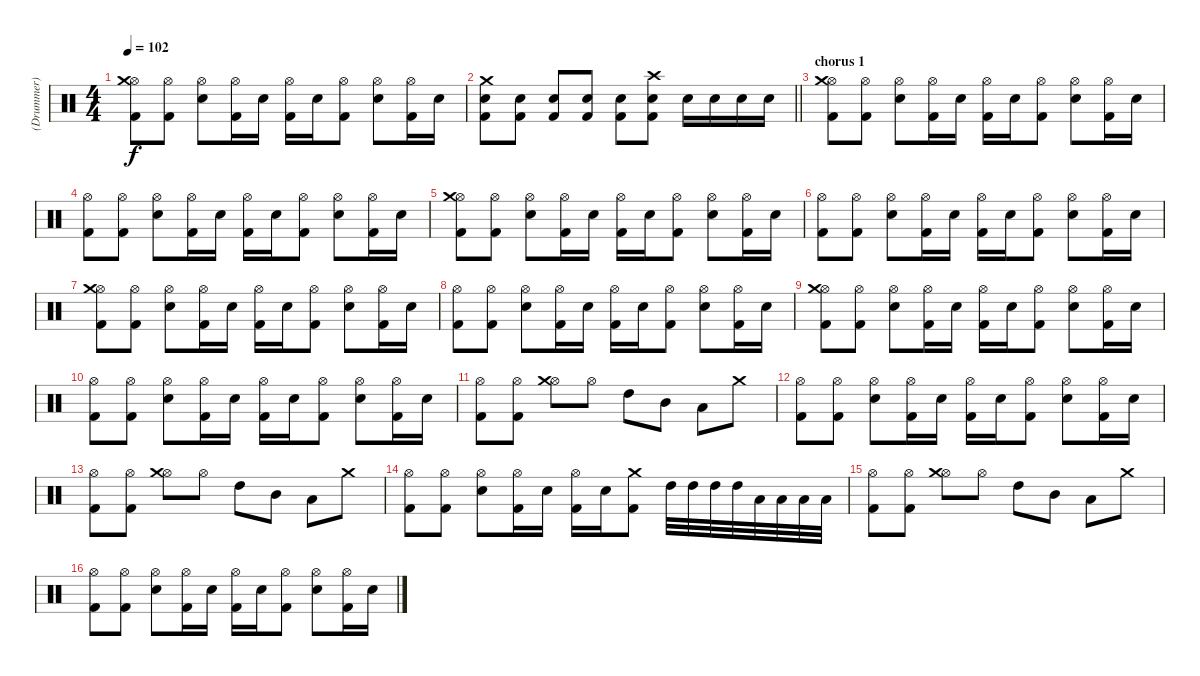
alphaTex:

\track ("(Drummer)" "(Drummer)") {solo instrument percussion}
\staff {score}
\articulation defaults
\ts (4 4)
\tempo 102
\clef neutral
\ks c
("Hi-Hat (open)" "Crash medium (hit)" "Kick (hit) 2").8{dy f} ("Hi-Hat (open)" "Kick (hit) 2").8 ("Hi-Hat (open)" "Electric Snare (hit)").8 ("Hi-Hat (open)" "Kick (hit) 2").16 "Electric Snare (hit)".16 ("Hi-Hat (open)" "Kick (hit) 2").16 "Electric Snare (hit)".16 ("Hi-Hat (open)" "Kick (hit) 2").8 ("Hi-Hat (open)" "Electric Snare (hit)").8 ("Hi-Hat (open)" "Kick (hit) 2").16 "Electric Snare (hit)".16 |
\barLineRight lightlight
("Crash medium (hit)" "Electric Snare (hit)" "Kick (hit) 2").8 ("Electric Snare (hit)" "Kick (hit) 2").8 ("Electric Snare (hit)" "Kick (hit) 2").8 ("Electric Snare (hit)" "Kick (hit) 2").8 ("Electric Snare (hit)" "Kick (hit) 2").8 ("Crash high (hit)" "Electric Snare (hit)" "Kick (hit) 2").8 "Electric Snare (hit)".16 "Electric Snare (hit)".16 "Electric Snare (hit)".16 "Electric Snare (hit)".16 |
\section ("" "chorus 1")
("Hi-Hat (open)" "Crash medium (hit)" "Kick (hit) 2").8 ("Hi-Hat (open)" "Kick (hit) 2").8 ("Hi-Hat (open)" "Electric Snare (hit)").8 ("Hi-Hat (open)" "Kick (hit) 2").16 "Electric Snare (hit)".16 ("Hi-Hat (open)" "Kick (hit) 2").16 "Electric Snare (hit)".16 ("Hi-Hat (open)" "Kick (hit) 2").8 ("Hi-Hat (open)" "Electric Snare (hit)").8 ("Hi-Hat (open)" "Kick (hit) 2").16 "Electric Snare (hit)".16 |
("Hi-Hat (open)" "Kick (hit) 2").8 ("Hi-Hat (open)" "Kick (hit) 2").8 ("Hi-Hat (open)" "Electric Snare (hit)").8 ("Hi-Hat (open)" "Kick (hit) 2").16 "Electric Snare (hit)".16 ("Hi-Hat (open)" "Kick (hit) 2").16 "Electric Snare (hit)".16 ("Hi-Hat (open)" "Kick (hit) 2").8 ("Hi-Hat (open)" "Electric Snare (hit)").8 ("Hi-Hat (open)" "Kick (hit) 2").16 "Electric Snare (hit)".16 |
("Hi-Hat (open)" "Crash medium (hit)" "Kick (hit) 2").8 ("Hi-Hat (open)" "Kick (hit) 2").8 ("Hi-Hat (open)" "Electric Snare (hit)").8 ("Hi-Hat (open)" "Kick (hit) 2").16 "Electric Snare (hit)".16 ("Hi-Hat (open)" "Kick (hit) 2").16 "Electric Snare (hit)".16 ("Hi-Hat (open)" "Kick (hit) 2").8 ("Hi-Hat (open)" "Electric Snare (hit)").8 ("Hi-Hat (open)" "Kick (hit) 2").16 "Electric Snare (hit)".16 |
("Hi-Hat (open)" "Kick (hit) 2").8 ("Hi-Hat (open)" "Kick (hit) 2").8 ("Hi-Hat (open)" "Electric Snare (hit)").8 ("Hi-Hat (open)" "Kick (hit) 2").16 "Electric Snare (hit)".16 ("Hi-Hat (open)" "Kick (hit) 2").16 "Electric Snare (hit)".16 ("Hi-Hat (open)" "Kick (hit) 2").8 ("Hi-Hat (open)" "Electric Snare (hit)").8 ("Hi-Hat (open)" "Kick (hit) 2").16 "Electric Snare (hit)".16 |
("Hi-Hat (open)" "Crash medium (hit)" "Kick (hit) 2").8 ("Hi-Hat (open)" "Kick (hit) 2").8 ("Hi-Hat (open)" "Electric Snare (hit)").8 ("Hi-Hat (open)" "Kick (hit) 2").16 "Electric Snare (hit)".16 ("Hi-Hat (open)" "Kick (hit) 2").16 "Electric Snare (hit)".16 ("Hi-Hat (open)" "Kick (hit) 2").8 ("Hi-Hat (open)" "Electric Snare (hit)").8 ("Hi-Hat (open)" "Kick (hit) 2").16 "Electric Snare (hit)".16 |
("Hi-Hat (open)" "Kick (hit) 2").8 ("Hi-Hat (open)" "Kick (hit) 2").8 ("Hi-Hat (open)" "Electric Snare (hit)").8 ("Hi-Hat (open)" "Kick (hit) 2").16 "Electric Snare (hit)".16 ("Hi-Hat (open)" "Kick (hit) 2").16 "Electric Snare (hit)".16 ("Hi-Hat (open)" "Kick (hit) 2").8 ("Hi-Hat (open)" "Electric Snare (hit)").8 ("Hi-Hat (open)" "Kick (hit) 2").16 "Electric Snare (hit)".16 |
("Hi-Hat (open)" "Crash medium (hit)" "Kick (hit) 2").8 ("Hi-Hat (open)" "Kick (hit) 2").8 ("Hi-Hat (open)" "Electric Snare (hit)").8 ("Hi-Hat (open)" "Kick (hit) 2").16 "Electric Snare (hit)".16 ("Hi-Hat (open)" "Kick (hit) 2").16 "Electric Snare (hit)".16 ("Hi-Hat (open)" "Kick (hit) 2").8 ("Hi-Hat (open)" "Electric Snare (hit)").8 ("Hi-Hat (open)" "Kick (hit) 2").16 "Electric Snare (hit)".16 |
("Hi-Hat (open)" "Kick (hit) 2").8 ("Hi-Hat (open)" "Kick (hit) 2").8 ("Hi-Hat (open)" "Electric Snare (hit)").8 ("Hi-Hat (open)" "Kick (hit) 2").16 "Electric Snare (hit)".16 ("Hi-Hat (open)" "Kick (hit) 2").16 "Electric Snare (hit)".16 ("Hi-Hat (open)" "Kick (hit) 2").8 ("Hi-Hat (open)" "Electric Snare (hit)").8 ("Hi-Hat (open)" "Kick (hit) 2").16 "Electric Snare (hit)".16 |
("Hi-Hat (open)" "Kick (hit) 2").8 ("Hi-Hat (open)" "Kick (hit) 2").8 ("Hi-Hat (open)" "Crash medium (hit)").8 "Hi-Hat (open)".8 "High Tom (hit)".8 "Mid Tom (hit)".8 "Low Tom (hit)".8 "Crash medium (hit)".8 |
("Hi-Hat (open)" "Kick (hit) 2").8 ("Hi-Hat (open)" "Kick (hit) 2").8 ("Hi-Hat (open)" "Electric Snare (hit)").8 ("Hi-Hat (open)" "Kick (hit) 2").16 "Electric Snare (hit)".16 ("Hi-Hat (open)" "Kick (hit) 2").16 "Electric Snare (hit)".16 ("Hi-Hat (open)" "Kick (hit) 2").8 ("Hi-Hat (open)" "Electric Snare (hit)").8 ("Hi-Hat (open)" "Kick (hit) 2").16 "Electric Snare (hit)".16 |
("Hi-Hat (open)" "Kick (hit) 2").8 ("Hi-Hat (open)" "Kick (hit) 2").8 ("Hi-Hat (open)" "Crash medium (hit)").8 "Hi-Hat (open)".8 "High Tom (hit)".8 "Mid Tom (hit)".8 "Low Tom (hit)".8 "Crash medium (hit)".8 |
("Hi-Hat (open)" "Kick (hit) 2").8 ("Hi-Hat (open)" "Kick (hit) 2").8 ("Hi-Hat (open)" "Electric Snare (hit)").8 ("Hi-Hat (open)" "Kick (hit) 2").16 "Electric Snare (hit)".16 ("Hi-Hat (open)" "Kick (hit) 2").16 "Electric Snare (hit)".16 ("Crash medium (hit)" "Kick (hit) 2").8 "High Tom (hit)".32 "High Tom (hit)".32 "High Tom (hit)".32 "High Tom (hit)".32 "Low Tom (hit)".32 "Low Tom (hit)".32 "Low Tom (hit)".32 "Low Tom (hit)".32 |
("Hi-Hat (open)" "Kick (hit) 2").8 ("Hi-Hat (open)" "Kick (hit) 2").8 ("Hi-Hat (open)" "Crash medium (hit)").8 "Hi-Hat (open)".8 "High Tom (hit)".8 "Mid Tom (hit)".8 "Low Tom (hit)".8 "Crash medium (hit)".8 |
("Hi-Hat (open)" "Kick (hit) 2").8 ("Hi-Hat (open)" "Kick (hit) 2").8 ("Hi-Hat (open)" "Electric Snare (hit)").8 ("Hi-Hat (open)" "Kick (hit) 2").16 "Electric Snare (hit)".16 ("Hi-Hat (open)" "Kick (hit) 2").16 "Electric Snare (hit)".16 ("Hi-Hat (open)" "Kick (hit) 2").8 ("Hi-Hat (open)" "Electric Snare (hit)").8 ("Hi-Hat (open)" "Kick (hit) 2").16 "Electric Snare (hit)".16
